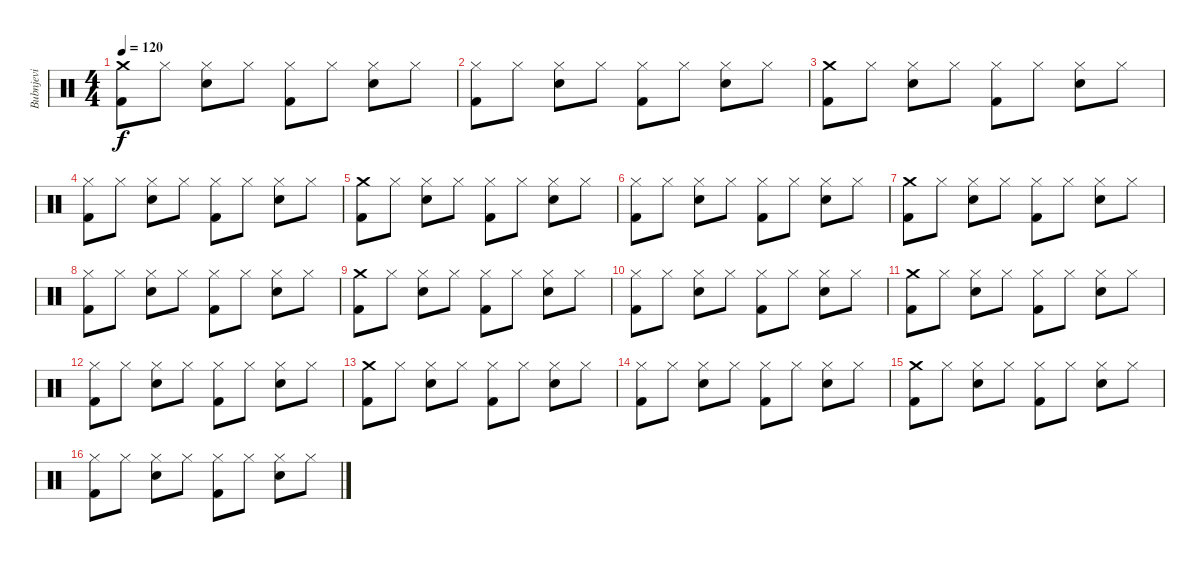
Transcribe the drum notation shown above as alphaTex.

\track ("Bubnjevi" "Bubnjevi") {instrument percussion}
\staff {score}
\articulation defaults
\ts (4 4)
\tempo 120
\clef neutral
\ks c
("Crash medium (hit)" "Kick (hit) 2").8{dy f} "Hi-Hat (closed)".8 ("Electric Snare (hit)" "Hi-Hat (closed)").8 "Hi-Hat (closed)".8 ("Hi-Hat (closed)" "Kick (hit) 2").8 "Hi-Hat (closed)".8 ("Electric Snare (hit)" "Hi-Hat (closed)").8 "Hi-Hat (closed)".8 |
("Hi-Hat (closed)" "Kick (hit) 2").8 "Hi-Hat (closed)".8 ("Electric Snare (hit)" "Hi-Hat (closed)").8 "Hi-Hat (closed)".8 ("Hi-Hat (closed)" "Kick (hit) 2").8 "Hi-Hat (closed)".8 ("Electric Snare (hit)" "Hi-Hat (closed)").8 "Hi-Hat (closed)".8 |
("Crash medium (hit)" "Kick (hit) 2").8 "Hi-Hat (closed)".8 ("Electric Snare (hit)" "Hi-Hat (closed)").8 "Hi-Hat (closed)".8 ("Hi-Hat (closed)" "Kick (hit) 2").8 "Hi-Hat (closed)".8 ("Electric Snare (hit)" "Hi-Hat (closed)").8 "Hi-Hat (closed)".8 |
("Hi-Hat (closed)" "Kick (hit) 2").8 "Hi-Hat (closed)".8 ("Electric Snare (hit)" "Hi-Hat (closed)").8 "Hi-Hat (closed)".8 ("Hi-Hat (closed)" "Kick (hit) 2").8 "Hi-Hat (closed)".8 ("Electric Snare (hit)" "Hi-Hat (closed)").8 "Hi-Hat (closed)".8 |
("Crash medium (hit)" "Kick (hit) 2").8 "Hi-Hat (closed)".8 ("Electric Snare (hit)" "Hi-Hat (closed)").8 "Hi-Hat (closed)".8 ("Hi-Hat (closed)" "Kick (hit) 2").8 "Hi-Hat (closed)".8 ("Electric Snare (hit)" "Hi-Hat (closed)").8 "Hi-Hat (closed)".8 |
("Hi-Hat (closed)" "Kick (hit) 2").8 "Hi-Hat (closed)".8 ("Electric Snare (hit)" "Hi-Hat (closed)").8 "Hi-Hat (closed)".8 ("Hi-Hat (closed)" "Kick (hit) 2").8 "Hi-Hat (closed)".8 ("Electric Snare (hit)" "Hi-Hat (closed)").8 "Hi-Hat (closed)".8 |
("Crash medium (hit)" "Kick (hit) 2").8 "Hi-Hat (closed)".8 ("Electric Snare (hit)" "Hi-Hat (closed)").8 "Hi-Hat (closed)".8 ("Hi-Hat (closed)" "Kick (hit) 2").8 "Hi-Hat (closed)".8 ("Electric Snare (hit)" "Hi-Hat (closed)").8 "Hi-Hat (closed)".8 |
("Hi-Hat (closed)" "Kick (hit) 2").8 "Hi-Hat (closed)".8 ("Electric Snare (hit)" "Hi-Hat (closed)").8 "Hi-Hat (closed)".8 ("Hi-Hat (closed)" "Kick (hit) 2").8 "Hi-Hat (closed)".8 ("Electric Snare (hit)" "Hi-Hat (closed)").8 "Hi-Hat (closed)".8 |
("Crash medium (hit)" "Kick (hit) 2").8 "Hi-Hat (closed)".8 ("Electric Snare (hit)" "Hi-Hat (closed)").8 "Hi-Hat (closed)".8 ("Hi-Hat (closed)" "Kick (hit) 2").8 "Hi-Hat (closed)".8 ("Electric Snare (hit)" "Hi-Hat (closed)").8 "Hi-Hat (closed)".8 |
("Hi-Hat (closed)" "Kick (hit) 2").8 "Hi-Hat (closed)".8 ("Electric Snare (hit)" "Hi-Hat (closed)").8 "Hi-Hat (closed)".8 ("Hi-Hat (closed)" "Kick (hit) 2").8 "Hi-Hat (closed)".8 ("Electric Snare (hit)" "Hi-Hat (closed)").8 "Hi-Hat (closed)".8 |
("Crash medium (hit)" "Kick (hit) 2").8 "Hi-Hat (closed)".8 ("Electric Snare (hit)" "Hi-Hat (closed)").8 "Hi-Hat (closed)".8 ("Hi-Hat (closed)" "Kick (hit) 2").8 "Hi-Hat (closed)".8 ("Electric Snare (hit)" "Hi-Hat (closed)").8 "Hi-Hat (closed)".8 |
("Hi-Hat (closed)" "Kick (hit) 2").8 "Hi-Hat (closed)".8 ("Electric Snare (hit)" "Hi-Hat (closed)").8 "Hi-Hat (closed)".8 ("Hi-Hat (closed)" "Kick (hit) 2").8 "Hi-Hat (closed)".8 ("Electric Snare (hit)" "Hi-Hat (closed)").8 "Hi-Hat (closed)".8 |
("Crash medium (hit)" "Kick (hit) 2").8 "Hi-Hat (closed)".8 ("Electric Snare (hit)" "Hi-Hat (closed)").8 "Hi-Hat (closed)".8 ("Hi-Hat (closed)" "Kick (hit) 2").8 "Hi-Hat (closed)".8 ("Electric Snare (hit)" "Hi-Hat (closed)").8 "Hi-Hat (closed)".8 |
("Hi-Hat (closed)" "Kick (hit) 2").8 "Hi-Hat (closed)".8 ("Electric Snare (hit)" "Hi-Hat (closed)").8 "Hi-Hat (closed)".8 ("Hi-Hat (closed)" "Kick (hit) 2").8 "Hi-Hat (closed)".8 ("Electric Snare (hit)" "Hi-Hat (closed)").8 "Hi-Hat (closed)".8 |
("Crash medium (hit)" "Kick (hit) 2").8 "Hi-Hat (closed)".8 ("Electric Snare (hit)" "Hi-Hat (closed)").8 "Hi-Hat (closed)".8 ("Hi-Hat (closed)" "Kick (hit) 2").8 "Hi-Hat (closed)".8 ("Electric Snare (hit)" "Hi-Hat (closed)").8 "Hi-Hat (closed)".8 |
("Hi-Hat (closed)" "Kick (hit) 2").8 "Hi-Hat (closed)".8 ("Electric Snare (hit)" "Hi-Hat (closed)").8 "Hi-Hat (closed)".8 ("Hi-Hat (closed)" "Kick (hit) 2").8 "Hi-Hat (closed)".8 ("Electric Snare (hit)" "Hi-Hat (closed)").8 "Hi-Hat (closed)".8
